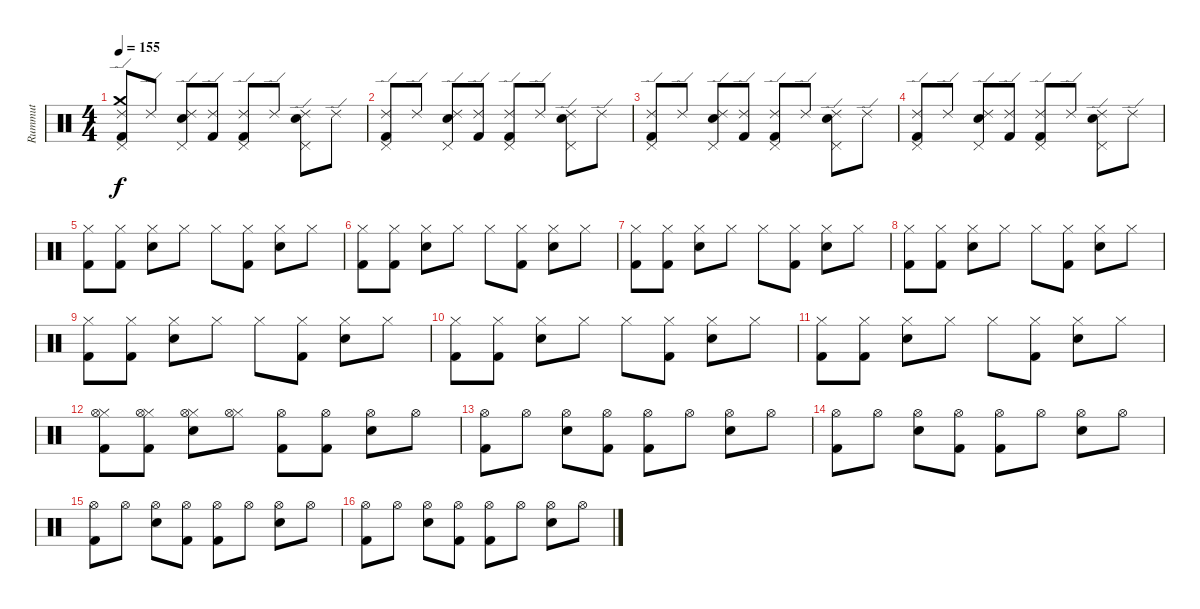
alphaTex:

\track ("Rummut" "Rummut") {instrument percussion}
\staff {score}
\articulation defaults
\ts (4 4)
\tempo 155
\clef neutral
\ks c
("Kick (hit) 2" "Ride (edge) 2" "Crash medium (hit)" "Pedal Hi-Hat (hit)").8{dy f} "Ride (edge) 2".8 ("Electric Snare (hit)" "Ride (edge) 2" "Pedal Hi-Hat (hit)").8 ("Kick (hit) 2" "Ride (edge) 2").8 ("Kick (hit) 2" "Ride (edge) 2" "Pedal Hi-Hat (hit)").8 "Ride (edge) 2".8 ("Electric Snare (hit)" "Ride (edge) 2" "Pedal Hi-Hat (hit)").8 "Ride (edge) 2".8 |
("Kick (hit) 2" "Ride (edge) 2" "Pedal Hi-Hat (hit)").8 "Ride (edge) 2".8 ("Electric Snare (hit)" "Ride (edge) 2" "Pedal Hi-Hat (hit)").8 ("Kick (hit) 2" "Ride (edge) 2").8 ("Kick (hit) 2" "Ride (edge) 2" "Pedal Hi-Hat (hit)").8 "Ride (edge) 2".8 ("Electric Snare (hit)" "Ride (edge) 2" "Pedal Hi-Hat (hit)").8 "Ride (edge) 2".8 |
("Kick (hit) 2" "Ride (edge) 2" "Pedal Hi-Hat (hit)").8 "Ride (edge) 2".8 ("Electric Snare (hit)" "Ride (edge) 2" "Pedal Hi-Hat (hit)").8 ("Kick (hit) 2" "Ride (edge) 2").8 ("Kick (hit) 2" "Ride (edge) 2" "Pedal Hi-Hat (hit)").8 "Ride (edge) 2".8 ("Electric Snare (hit)" "Ride (edge) 2" "Pedal Hi-Hat (hit)").8 "Ride (edge) 2".8 |
("Kick (hit) 2" "Ride (edge) 2" "Pedal Hi-Hat (hit)").8 "Ride (edge) 2".8 ("Electric Snare (hit)" "Ride (edge) 2" "Pedal Hi-Hat (hit)").8 ("Kick (hit) 2" "Ride (edge) 2").8 ("Kick (hit) 2" "Ride (edge) 2" "Pedal Hi-Hat (hit)").8 "Ride (edge) 2".8 ("Electric Snare (hit)" "Ride (edge) 2" "Pedal Hi-Hat (hit)").8 "Ride (edge) 2".8 |
("Kick (hit) 2" "Hi-Hat (closed)").8 ("Kick (hit) 2" "Hi-Hat (closed)").8 ("Electric Snare (hit)" "Hi-Hat (closed)").8 "Hi-Hat (closed)".8 "Hi-Hat (closed)".8 ("Kick (hit) 2" "Hi-Hat (closed)").8 ("Electric Snare (hit)" "Hi-Hat (closed)").8 "Hi-Hat (closed)".8 |
("Kick (hit) 2" "Hi-Hat (closed)").8 ("Kick (hit) 2" "Hi-Hat (closed)").8 ("Electric Snare (hit)" "Hi-Hat (closed)").8 "Hi-Hat (closed)".8 "Hi-Hat (closed)".8 ("Kick (hit) 2" "Hi-Hat (closed)").8 ("Electric Snare (hit)" "Hi-Hat (closed)").8 "Hi-Hat (closed)".8 |
("Kick (hit) 2" "Hi-Hat (closed)").8 ("Kick (hit) 2" "Hi-Hat (closed)").8 ("Electric Snare (hit)" "Hi-Hat (closed)").8 "Hi-Hat (closed)".8 "Hi-Hat (closed)".8 ("Kick (hit) 2" "Hi-Hat (closed)").8 ("Electric Snare (hit)" "Hi-Hat (closed)").8 "Hi-Hat (closed)".8 |
("Kick (hit) 2" "Hi-Hat (closed)").8 ("Kick (hit) 2" "Hi-Hat (closed)").8 ("Electric Snare (hit)" "Hi-Hat (closed)").8 "Hi-Hat (closed)".8 "Hi-Hat (closed)".8 ("Kick (hit) 2" "Hi-Hat (closed)").8 ("Electric Snare (hit)" "Hi-Hat (closed)").8 "Hi-Hat (closed)".8 |
("Kick (hit) 2" "Hi-Hat (closed)").8 ("Kick (hit) 2" "Hi-Hat (closed)").8 ("Electric Snare (hit)" "Hi-Hat (closed)").8 "Hi-Hat (closed)".8 "Hi-Hat (closed)".8 ("Kick (hit) 2" "Hi-Hat (closed)").8 ("Electric Snare (hit)" "Hi-Hat (closed)").8 "Hi-Hat (closed)".8 |
("Kick (hit) 2" "Hi-Hat (closed)").8 ("Kick (hit) 2" "Hi-Hat (closed)").8 ("Electric Snare (hit)" "Hi-Hat (closed)").8 "Hi-Hat (closed)".8 "Hi-Hat (closed)".8 ("Kick (hit) 2" "Hi-Hat (closed)").8 ("Electric Snare (hit)" "Hi-Hat (closed)").8 "Hi-Hat (closed)".8 |
("Kick (hit) 2" "Hi-Hat (closed)").8 ("Kick (hit) 2" "Hi-Hat (closed)").8 ("Electric Snare (hit)" "Hi-Hat (closed)").8 "Hi-Hat (closed)".8 "Hi-Hat (closed)".8 ("Kick (hit) 2" "Hi-Hat (closed)").8 ("Electric Snare (hit)" "Hi-Hat (closed)").8 "Hi-Hat (closed)".8 |
("Kick (hit) 2" "Hi-Hat (closed)" "Hi-Hat (open)").8 ("Kick (hit) 2" "Hi-Hat (closed)" "Hi-Hat (open)").8 ("Electric Snare (hit)" "Hi-Hat (closed)" "Hi-Hat (open)").8 ("Hi-Hat (closed)" "Hi-Hat (open)").8 ("Kick (hit) 2" "Hi-Hat (open)").8 ("Kick (hit) 2" "Hi-Hat (open)").8 ("Electric Snare (hit)" "Hi-Hat (open)").8 "Hi-Hat (open)".8 |
("Kick (hit) 2" "Hi-Hat (open)").8 "Hi-Hat (open)".8 ("Electric Snare (hit)" "Hi-Hat (open)").8 ("Kick (hit) 2" "Hi-Hat (open)").8 ("Kick (hit) 2" "Hi-Hat (open)").8 "Hi-Hat (open)".8 ("Electric Snare (hit)" "Hi-Hat (open)").8 "Hi-Hat (open)".8 |
("Kick (hit) 2" "Hi-Hat (open)").8 "Hi-Hat (open)".8 ("Electric Snare (hit)" "Hi-Hat (open)").8 ("Kick (hit) 2" "Hi-Hat (open)").8 ("Kick (hit) 2" "Hi-Hat (open)").8 "Hi-Hat (open)".8 ("Electric Snare (hit)" "Hi-Hat (open)").8 "Hi-Hat (open)".8 |
("Kick (hit) 2" "Hi-Hat (open)").8 "Hi-Hat (open)".8 ("Electric Snare (hit)" "Hi-Hat (open)").8 ("Kick (hit) 2" "Hi-Hat (open)").8 ("Kick (hit) 2" "Hi-Hat (open)").8 "Hi-Hat (open)".8 ("Electric Snare (hit)" "Hi-Hat (open)").8 "Hi-Hat (open)".8 |
("Kick (hit) 2" "Hi-Hat (open)").8 "Hi-Hat (open)".8 ("Electric Snare (hit)" "Hi-Hat (open)").8 ("Kick (hit) 2" "Hi-Hat (open)").8 ("Kick (hit) 2" "Hi-Hat (open)").8 "Hi-Hat (open)".8 ("Electric Snare (hit)" "Hi-Hat (open)").8 "Hi-Hat (open)".8
